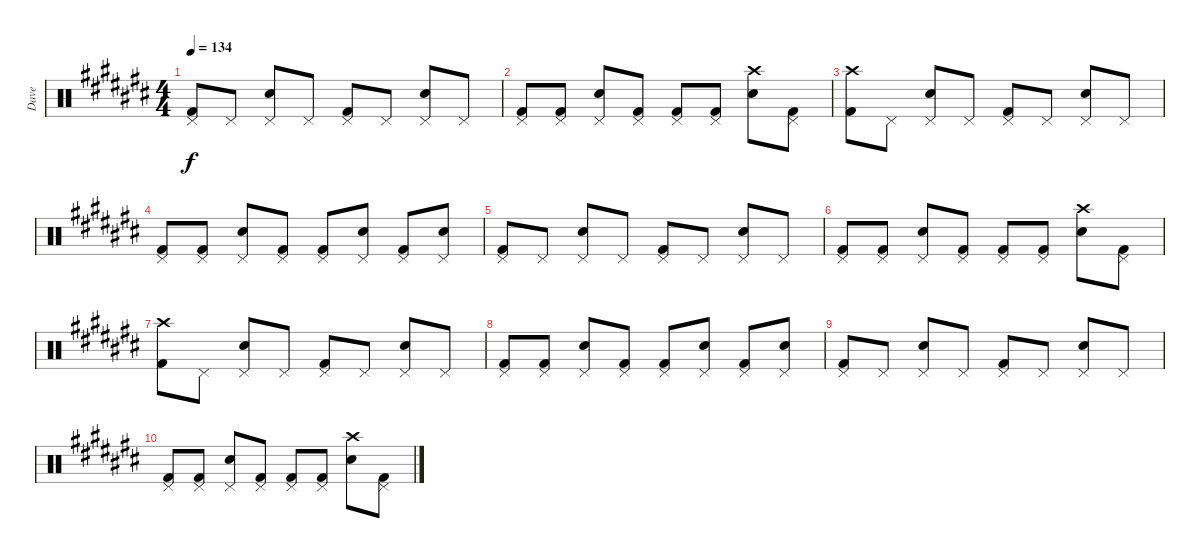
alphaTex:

\track ("Dave" "Dave") {instrument percussion}
\staff {score}
\articulation defaults
\ts (4 4)
\tempo 134
\clef neutral
\ks c#
("Pedal Hi-Hat (hit)" "Kick (hit) 2").8{dy f} "Pedal Hi-Hat (hit)".8 ("Pedal Hi-Hat (hit)" "Snare (hit) 2").8 "Pedal Hi-Hat (hit)".8 ("Pedal Hi-Hat (hit)" "Kick (hit) 2").8 "Pedal Hi-Hat (hit)".8 ("Pedal Hi-Hat (hit)" "Snare (hit) 2").8 "Pedal Hi-Hat (hit)".8 |
("Pedal Hi-Hat (hit)" "Kick (hit) 2").8 ("Pedal Hi-Hat (hit)" "Kick (hit) 2").8 ("Pedal Hi-Hat (hit)" "Snare (hit) 2").8 ("Pedal Hi-Hat (hit)" "Kick (hit) 2").8 ("Pedal Hi-Hat (hit)" "Kick (hit) 2").8 ("Pedal Hi-Hat (hit)" "Kick (hit) 2").8 ("Crash high (hit)" "Snare (hit) 2").8 ("Pedal Hi-Hat (hit)" "Kick (hit) 2").8 |
("Crash high (hit)" "Kick (hit) 2").8 "Pedal Hi-Hat (hit)".8 ("Pedal Hi-Hat (hit)" "Snare (hit) 2").8 "Pedal Hi-Hat (hit)".8 ("Pedal Hi-Hat (hit)" "Kick (hit) 2").8 "Pedal Hi-Hat (hit)".8 ("Pedal Hi-Hat (hit)" "Snare (hit) 2").8 "Pedal Hi-Hat (hit)".8 |
("Pedal Hi-Hat (hit)" "Kick (hit) 2").8 ("Pedal Hi-Hat (hit)" "Kick (hit) 2").8 ("Pedal Hi-Hat (hit)" "Snare (hit) 2").8 ("Pedal Hi-Hat (hit)" "Kick (hit) 2").8 ("Pedal Hi-Hat (hit)" "Kick (hit) 2").8 ("Pedal Hi-Hat (hit)" "Snare (hit) 2").8 ("Pedal Hi-Hat (hit)" "Kick (hit) 2").8 ("Pedal Hi-Hat (hit)" "Snare (hit) 2").8 |
("Pedal Hi-Hat (hit)" "Kick (hit) 2").8 "Pedal Hi-Hat (hit)".8 ("Pedal Hi-Hat (hit)" "Snare (hit) 2").8 "Pedal Hi-Hat (hit)".8 ("Pedal Hi-Hat (hit)" "Kick (hit) 2").8 "Pedal Hi-Hat (hit)".8 ("Pedal Hi-Hat (hit)" "Snare (hit) 2").8 "Pedal Hi-Hat (hit)".8 |
("Pedal Hi-Hat (hit)" "Kick (hit) 2").8 ("Pedal Hi-Hat (hit)" "Kick (hit) 2").8 ("Pedal Hi-Hat (hit)" "Snare (hit) 2").8 ("Pedal Hi-Hat (hit)" "Kick (hit) 2").8 ("Pedal Hi-Hat (hit)" "Kick (hit) 2").8 ("Pedal Hi-Hat (hit)" "Kick (hit) 2").8 ("Crash high (hit)" "Snare (hit) 2").8 ("Pedal Hi-Hat (hit)" "Kick (hit) 2").8 |
("Crash high (hit)" "Kick (hit) 2").8 "Pedal Hi-Hat (hit)".8 ("Pedal Hi-Hat (hit)" "Snare (hit) 2").8 "Pedal Hi-Hat (hit)".8 ("Pedal Hi-Hat (hit)" "Kick (hit) 2").8 "Pedal Hi-Hat (hit)".8 ("Pedal Hi-Hat (hit)" "Snare (hit) 2").8 "Pedal Hi-Hat (hit)".8 |
("Pedal Hi-Hat (hit)" "Kick (hit) 2").8 ("Pedal Hi-Hat (hit)" "Kick (hit) 2").8 ("Pedal Hi-Hat (hit)" "Snare (hit) 2").8 ("Pedal Hi-Hat (hit)" "Kick (hit) 2").8 ("Pedal Hi-Hat (hit)" "Kick (hit) 2").8 ("Pedal Hi-Hat (hit)" "Snare (hit) 2").8 ("Pedal Hi-Hat (hit)" "Kick (hit) 2").8 ("Pedal Hi-Hat (hit)" "Snare (hit) 2").8 |
("Pedal Hi-Hat (hit)" "Kick (hit) 2").8 "Pedal Hi-Hat (hit)".8 ("Pedal Hi-Hat (hit)" "Snare (hit) 2").8 "Pedal Hi-Hat (hit)".8 ("Pedal Hi-Hat (hit)" "Kick (hit) 2").8 "Pedal Hi-Hat (hit)".8 ("Pedal Hi-Hat (hit)" "Snare (hit) 2").8 "Pedal Hi-Hat (hit)".8 |
("Pedal Hi-Hat (hit)" "Kick (hit) 2").8 ("Pedal Hi-Hat (hit)" "Kick (hit) 2").8 ("Pedal Hi-Hat (hit)" "Snare (hit) 2").8 ("Pedal Hi-Hat (hit)" "Kick (hit) 2").8 ("Pedal Hi-Hat (hit)" "Kick (hit) 2").8 ("Pedal Hi-Hat (hit)" "Kick (hit) 2").8 ("Crash high (hit)" "Snare (hit) 2").8 ("Pedal Hi-Hat (hit)" "Kick (hit) 2").8
